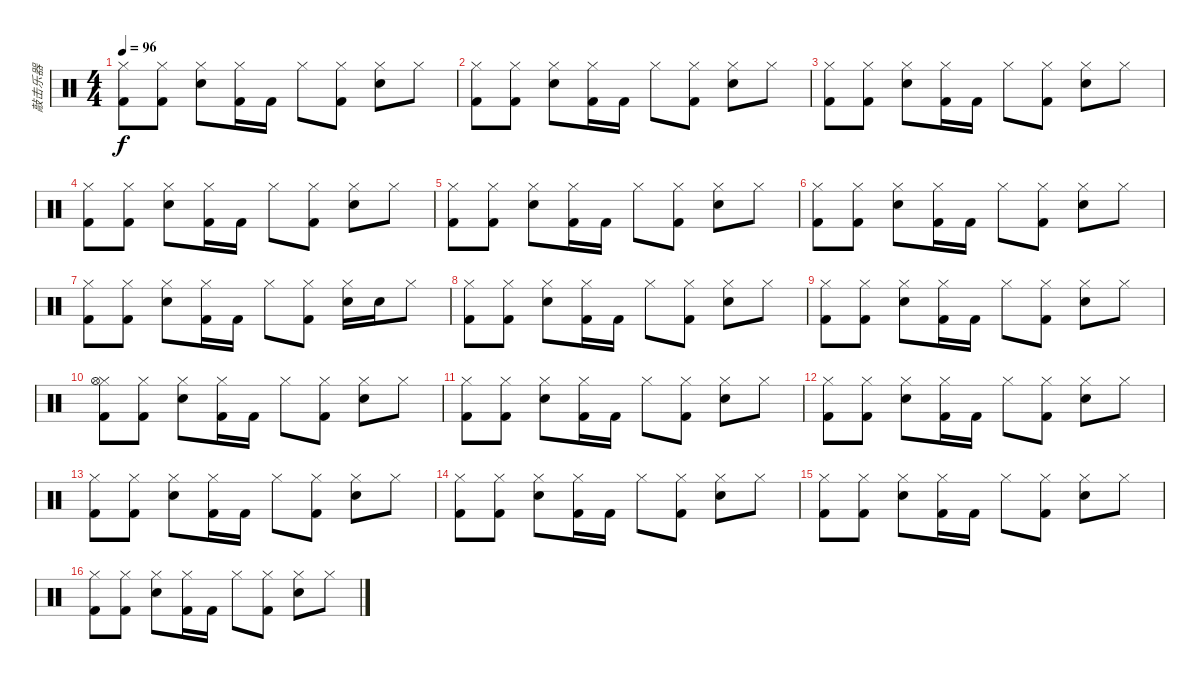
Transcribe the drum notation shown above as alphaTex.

\track ("敲击乐器" "敲击乐器") {instrument percussion}
\staff {score}
\articulation defaults
\ts (4 4)
\tempo 96
\clef neutral
\ks c
("Hi-Hat (closed)" "Kick (hit) 2").8{dy f} ("Hi-Hat (closed)" "Kick (hit) 2").8 ("Hi-Hat (closed)" "Electric Snare (hit)").8 ("Hi-Hat (closed)" "Kick (hit) 2").16 "Kick (hit) 2".16 "Hi-Hat (closed)".8 ("Hi-Hat (closed)" "Kick (hit) 2").8 ("Hi-Hat (closed)" "Electric Snare (hit)").8 "Hi-Hat (closed)".8 |
("Hi-Hat (closed)" "Kick (hit) 2").8 ("Hi-Hat (closed)" "Kick (hit) 2").8 ("Hi-Hat (closed)" "Electric Snare (hit)").8 ("Hi-Hat (closed)" "Kick (hit) 2").16 "Kick (hit) 2".16 "Hi-Hat (closed)".8 ("Hi-Hat (closed)" "Kick (hit) 2").8 ("Hi-Hat (closed)" "Electric Snare (hit)").8 "Hi-Hat (closed)".8 |
("Hi-Hat (closed)" "Kick (hit) 2").8 ("Hi-Hat (closed)" "Kick (hit) 2").8 ("Hi-Hat (closed)" "Electric Snare (hit)").8 ("Hi-Hat (closed)" "Kick (hit) 2").16 "Kick (hit) 2".16 "Hi-Hat (closed)".8 ("Hi-Hat (closed)" "Kick (hit) 2").8 ("Hi-Hat (closed)" "Electric Snare (hit)").8 "Hi-Hat (closed)".8 |
("Hi-Hat (closed)" "Kick (hit) 2").8 ("Hi-Hat (closed)" "Kick (hit) 2").8 ("Hi-Hat (closed)" "Electric Snare (hit)").8 ("Hi-Hat (closed)" "Kick (hit) 2").16 "Kick (hit) 2".16 "Hi-Hat (closed)".8 ("Hi-Hat (closed)" "Kick (hit) 2").8 ("Hi-Hat (closed)" "Electric Snare (hit)").8 "Hi-Hat (closed)".8 |
("Hi-Hat (closed)" "Kick (hit) 2").8 ("Hi-Hat (closed)" "Kick (hit) 2").8 ("Hi-Hat (closed)" "Electric Snare (hit)").8 ("Hi-Hat (closed)" "Kick (hit) 2").16 "Kick (hit) 2".16 "Hi-Hat (closed)".8 ("Hi-Hat (closed)" "Kick (hit) 2").8 ("Hi-Hat (closed)" "Electric Snare (hit)").8 "Hi-Hat (closed)".8 |
("Hi-Hat (closed)" "Kick (hit) 2").8 ("Hi-Hat (closed)" "Kick (hit) 2").8 ("Hi-Hat (closed)" "Electric Snare (hit)").8 ("Hi-Hat (closed)" "Kick (hit) 2").16 "Kick (hit) 2".16 "Hi-Hat (closed)".8 ("Hi-Hat (closed)" "Kick (hit) 2").8 ("Hi-Hat (closed)" "Electric Snare (hit)").8 "Hi-Hat (closed)".8 |
("Hi-Hat (closed)" "Kick (hit) 2").8 ("Hi-Hat (closed)" "Kick (hit) 2").8 ("Hi-Hat (closed)" "Electric Snare (hit)").8 ("Hi-Hat (closed)" "Kick (hit) 2").16 "Kick (hit) 2".16 "Hi-Hat (closed)".8 ("Hi-Hat (closed)" "Kick (hit) 2").8 ("Hi-Hat (closed)" "Electric Snare (hit)").16 "Electric Snare (hit)".16 "Hi-Hat (closed)".8 |
("Hi-Hat (closed)" "Kick (hit) 2").8 ("Hi-Hat (closed)" "Kick (hit) 2").8 ("Hi-Hat (closed)" "Electric Snare (hit)").8 ("Hi-Hat (closed)" "Kick (hit) 2").16 "Kick (hit) 2".16 "Hi-Hat (closed)".8 ("Hi-Hat (closed)" "Kick (hit) 2").8 ("Hi-Hat (closed)" "Electric Snare (hit)").8 "Hi-Hat (closed)".8 |
("Hi-Hat (closed)" "Kick (hit) 2").8 ("Hi-Hat (closed)" "Kick (hit) 2").8 ("Hi-Hat (closed)" "Electric Snare (hit)").8 ("Hi-Hat (closed)" "Kick (hit) 2").16 "Kick (hit) 2".16 "Hi-Hat (closed)".8 ("Hi-Hat (closed)" "Kick (hit) 2").8 ("Hi-Hat (closed)" "Electric Snare (hit)").8 "Hi-Hat (closed)".8 |
("Hi-Hat (closed)" "Hi-Hat (open)" "Kick (hit) 2").8 ("Hi-Hat (closed)" "Kick (hit) 2").8 ("Hi-Hat (closed)" "Electric Snare (hit)").8 ("Hi-Hat (closed)" "Kick (hit) 2").16 "Kick (hit) 2".16 "Hi-Hat (closed)".8 ("Hi-Hat (closed)" "Kick (hit) 2").8 ("Hi-Hat (closed)" "Electric Snare (hit)").8 "Hi-Hat (closed)".8 |
("Hi-Hat (closed)" "Kick (hit) 2").8 ("Hi-Hat (closed)" "Kick (hit) 2").8 ("Hi-Hat (closed)" "Electric Snare (hit)").8 ("Hi-Hat (closed)" "Kick (hit) 2").16 "Kick (hit) 2".16 "Hi-Hat (closed)".8 ("Hi-Hat (closed)" "Kick (hit) 2").8 ("Hi-Hat (closed)" "Electric Snare (hit)").8 "Hi-Hat (closed)".8 |
("Hi-Hat (closed)" "Kick (hit) 2").8 ("Hi-Hat (closed)" "Kick (hit) 2").8 ("Hi-Hat (closed)" "Electric Snare (hit)").8 ("Hi-Hat (closed)" "Kick (hit) 2").16 "Kick (hit) 2".16 "Hi-Hat (closed)".8 ("Hi-Hat (closed)" "Kick (hit) 2").8 ("Hi-Hat (closed)" "Electric Snare (hit)").8 "Hi-Hat (closed)".8 |
("Hi-Hat (closed)" "Kick (hit) 2").8 ("Hi-Hat (closed)" "Kick (hit) 2").8 ("Hi-Hat (closed)" "Electric Snare (hit)").8 ("Hi-Hat (closed)" "Kick (hit) 2").16 "Kick (hit) 2".16 "Hi-Hat (closed)".8 ("Hi-Hat (closed)" "Kick (hit) 2").8 ("Hi-Hat (closed)" "Electric Snare (hit)").8 "Hi-Hat (closed)".8 |
("Hi-Hat (closed)" "Kick (hit) 2").8 ("Hi-Hat (closed)" "Kick (hit) 2").8 ("Hi-Hat (closed)" "Electric Snare (hit)").8 ("Hi-Hat (closed)" "Kick (hit) 2").16 "Kick (hit) 2".16 "Hi-Hat (closed)".8 ("Hi-Hat (closed)" "Kick (hit) 2").8 ("Hi-Hat (closed)" "Electric Snare (hit)").8 "Hi-Hat (closed)".8 |
("Hi-Hat (closed)" "Kick (hit) 2").8 ("Hi-Hat (closed)" "Kick (hit) 2").8 ("Hi-Hat (closed)" "Electric Snare (hit)").8 ("Hi-Hat (closed)" "Kick (hit) 2").16 "Kick (hit) 2".16 "Hi-Hat (closed)".8 ("Hi-Hat (closed)" "Kick (hit) 2").8 ("Hi-Hat (closed)" "Electric Snare (hit)").8 "Hi-Hat (closed)".8 |
("Hi-Hat (closed)" "Kick (hit) 2").8 ("Hi-Hat (closed)" "Kick (hit) 2").8 ("Hi-Hat (closed)" "Electric Snare (hit)").8 ("Hi-Hat (closed)" "Kick (hit) 2").16 "Kick (hit) 2".16 "Hi-Hat (closed)".8 ("Hi-Hat (closed)" "Kick (hit) 2").8 ("Hi-Hat (closed)" "Electric Snare (hit)").8 "Hi-Hat (closed)".8
